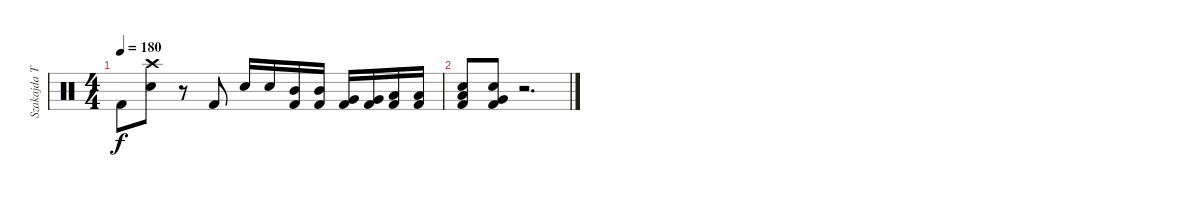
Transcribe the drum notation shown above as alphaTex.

\track ("Szakajda Tibi" "Szakajda T") {instrument percussion}
\staff {score}
\articulation defaults
\ts (4 4)
\tempo 180
\clef neutral
\ks c "Kick (hit) 2".8{dy f}
("Crash high (hit)" "Electric Snare (hit)").8 r.8 "Kick (hit) 2".8 "Electric Snare (hit)".16 "Electric Snare (hit)".16 ("Mid Tom (hit)" "Kick (hit) 2").16 ("Mid Tom (hit)" "Kick (hit) 2").16 ("Very Low Tom (hit)" "Kick (hit) 2").16 ("Very Low Tom (hit)" "Kick (hit) 2").16 ("Low Floor Tom (hit)" "Kick (hit) 2").16 ("Low Floor Tom (hit)" "Kick (hit) 2").16 |
("Low Floor Tom (hit)" "Electric Snare (hit)" "Kick (hit) 2").8 ("Very Low Tom (hit)" "Electric Snare (hit)" "Kick (hit) 2").8 r.2{d}
